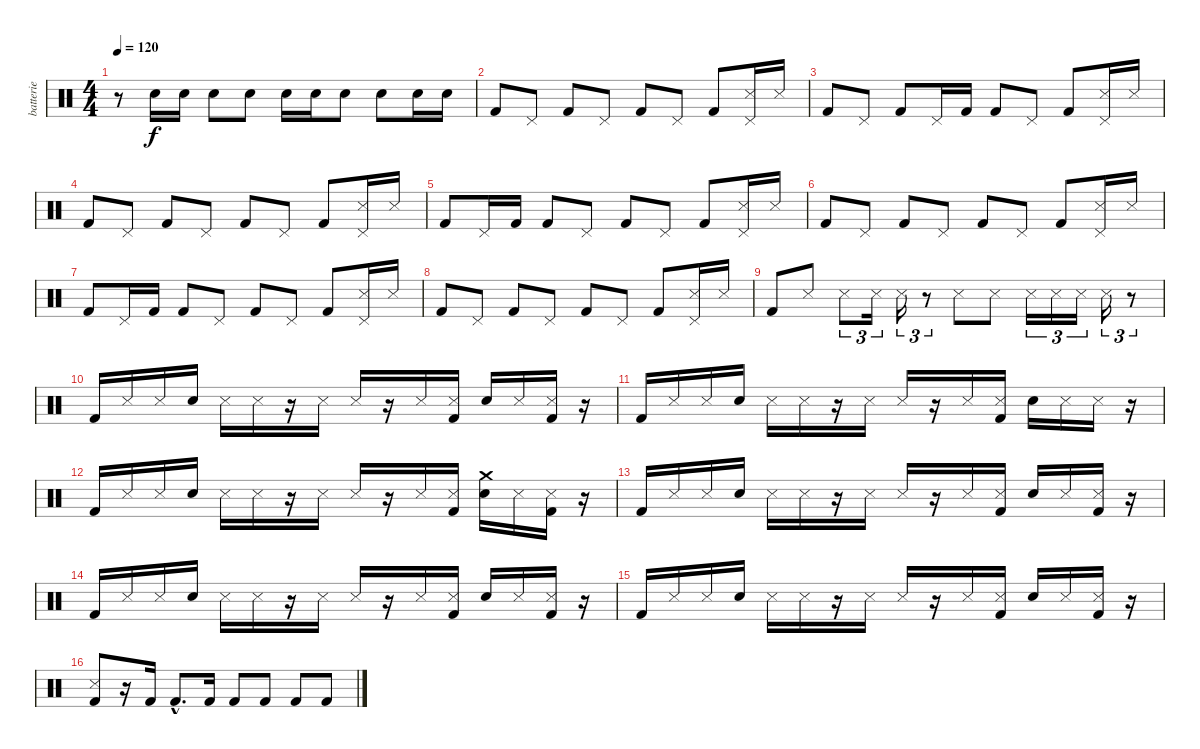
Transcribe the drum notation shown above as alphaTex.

\track ("batterie" "batterie") {instrument percussion}
\staff {score}
\articulation defaults
\ts (4 4)
\tempo 120
\clef neutral
\ks c
r.8{dy f} "Electric Snare (hit)".16 "Electric Snare (hit)".16 "Electric Snare (hit)".8 "Electric Snare (hit)".8 "Electric Snare (hit)".16 "Electric Snare (hit)".16 "Electric Snare (hit)".8 "Electric Snare (hit)".8 "Electric Snare (hit)".16 "Electric Snare (hit)".16 |
"Kick (hit) 2".8 "Pedal Hi-Hat (hit)".8 "Kick (hit) 2".8 "Pedal Hi-Hat (hit)".8 "Kick (hit) 2".8 "Pedal Hi-Hat (hit)".8 "Kick (hit) 2".8 ("Metronome (hit)" "Pedal Hi-Hat (hit)").16 "Metronome (hit)".16 |
"Kick (hit) 2".8 "Pedal Hi-Hat (hit)".8 "Kick (hit) 2".8 "Pedal Hi-Hat (hit)".16 "Kick (hit) 2".16 "Kick (hit) 2".8 "Pedal Hi-Hat (hit)".8 "Kick (hit) 2".8 ("Metronome (hit)" "Pedal Hi-Hat (hit)").16 "Metronome (hit)".16 |
"Kick (hit) 2".8 "Pedal Hi-Hat (hit)".8 "Kick (hit) 2".8 "Pedal Hi-Hat (hit)".8 "Kick (hit) 2".8 "Pedal Hi-Hat (hit)".8 "Kick (hit) 2".8 ("Metronome (hit)" "Pedal Hi-Hat (hit)").16 "Metronome (hit)".16 |
"Kick (hit) 2".8 "Pedal Hi-Hat (hit)".16 "Kick (hit) 2".16 "Kick (hit) 2".8 "Pedal Hi-Hat (hit)".8 "Kick (hit) 2".8 "Pedal Hi-Hat (hit)".8 "Kick (hit) 2".8 ("Metronome (hit)" "Pedal Hi-Hat (hit)").16 "Metronome (hit)".16 |
"Kick (hit) 2".8 "Pedal Hi-Hat (hit)".8 "Kick (hit) 2".8 "Pedal Hi-Hat (hit)".8 "Kick (hit) 2".8 "Pedal Hi-Hat (hit)".8 "Kick (hit) 2".8 ("Metronome (hit)" "Pedal Hi-Hat (hit)").16 "Metronome (hit)".16 |
"Kick (hit) 2".8 "Pedal Hi-Hat (hit)".16 "Kick (hit) 2".16 "Kick (hit) 2".8 "Pedal Hi-Hat (hit)".8 "Kick (hit) 2".8 "Pedal Hi-Hat (hit)".8 "Kick (hit) 2".8 ("Metronome (hit)" "Pedal Hi-Hat (hit)").16 "Metronome (hit)".16 |
"Kick (hit) 2".8 "Pedal Hi-Hat (hit)".8 "Kick (hit) 2".8 "Pedal Hi-Hat (hit)".8 "Kick (hit) 2".8 "Pedal Hi-Hat (hit)".8 "Kick (hit) 2".8 ("Metronome (hit)" "Pedal Hi-Hat (hit)").16 "Metronome (hit)".16 |
"Kick (hit) 2".8 "Snare (side stick) 3".8 "Snare (side stick) 3".8{tu (3 2)} "Snare (side stick) 3".16{tu (3 2)} "Snare (side stick) 3".16{tu (3 2)} r.8{tu (3 2)} "Snare (side stick) 3".8 "Snare (side stick) 3".8 "Snare (side stick) 3".16{tu (3 2)} "Snare (side stick) 3".16{tu (3 2)} "Snare (side stick) 3".16{tu (3 2)} "Snare (side stick) 3".16{tu (3 2)} r.8{tu (3 2)} |
"Kick (hit) 2".16 "Snare (side stick) 3".16 "Snare (side stick) 3".16 "Electric Snare (hit)".16 "Snare (side stick) 3".16 "Snare (side stick) 3".16 r.16 "Snare (side stick) 3".16 "Snare (side stick) 3".16 r.16 "Snare (side stick) 3".16 ("Kick (hit) 2" "Snare (side stick) 3").16 "Electric Snare (hit)".16 "Snare (side stick) 3".16 ("Kick (hit) 2" "Snare (side stick) 3").16 r.16 |
"Kick (hit) 2".16 "Snare (side stick) 3".16 "Snare (side stick) 3".16 "Electric Snare (hit)".16 "Snare (side stick) 3".16 "Snare (side stick) 3".16 r.16 "Snare (side stick) 3".16 "Snare (side stick) 3".16 r.16 "Snare (side stick) 3".16 ("Kick (hit) 2" "Snare (side stick) 3").16 "Electric Snare (hit)".16 "Snare (side stick) 3".16 "Snare (side stick) 3".16 r.16 |
"Kick (hit) 2".16 "Snare (side stick) 3".16 "Snare (side stick) 3".16 "Electric Snare (hit)".16 "Snare (side stick) 3".16 "Snare (side stick) 3".16 r.16 "Snare (side stick) 3".16 "Snare (side stick) 3".16 r.16 "Snare (side stick) 3".16 ("Kick (hit) 2" "Snare (side stick) 3").16 ("Electric Snare (hit)" "Crash medium (hit)").16 "Snare (side stick) 3".16 ("Kick (hit) 2" "Snare (side stick) 3").16 r.16 |
"Kick (hit) 2".16 "Snare (side stick) 3".16 "Snare (side stick) 3".16 "Electric Snare (hit)".16 "Snare (side stick) 3".16 "Snare (side stick) 3".16 r.16 "Snare (side stick) 3".16 "Snare (side stick) 3".16 r.16 "Snare (side stick) 3".16 ("Kick (hit) 2" "Snare (side stick) 3").16 "Electric Snare (hit)".16 "Snare (side stick) 3".16 ("Kick (hit) 2" "Snare (side stick) 3").16 r.16 |
"Kick (hit) 2".16 "Snare (side stick) 3".16 "Snare (side stick) 3".16 "Electric Snare (hit)".16 "Snare (side stick) 3".16 "Snare (side stick) 3".16 r.16 "Snare (side stick) 3".16 "Snare (side stick) 3".16 r.16 "Snare (side stick) 3".16 ("Kick (hit) 2" "Snare (side stick) 3").16 "Electric Snare (hit)".16 "Snare (side stick) 3".16 ("Kick (hit) 2" "Snare (side stick) 3").16 r.16 |
"Kick (hit) 2".16 "Snare (side stick) 3".16 "Snare (side stick) 3".16 "Electric Snare (hit)".16 "Snare (side stick) 3".16 "Snare (side stick) 3".16 r.16 "Snare (side stick) 3".16 "Snare (side stick) 3".16 r.16 "Snare (side stick) 3".16 ("Kick (hit) 2" "Snare (side stick) 3").16 "Electric Snare (hit)".16 "Snare (side stick) 3".16 ("Kick (hit) 2" "Snare (side stick) 3").16 r.16 |
("Kick (hit) 2" "Snare (side stick) 3").8 r.16 "Kick (hit) 2".16 "Kick (hit) 2"{hac}.8{d} "Kick (hit) 2".16 "Kick (hit) 2".8 "Kick (hit) 2".8 "Kick (hit) 2".8 "Kick (hit) 2".8
